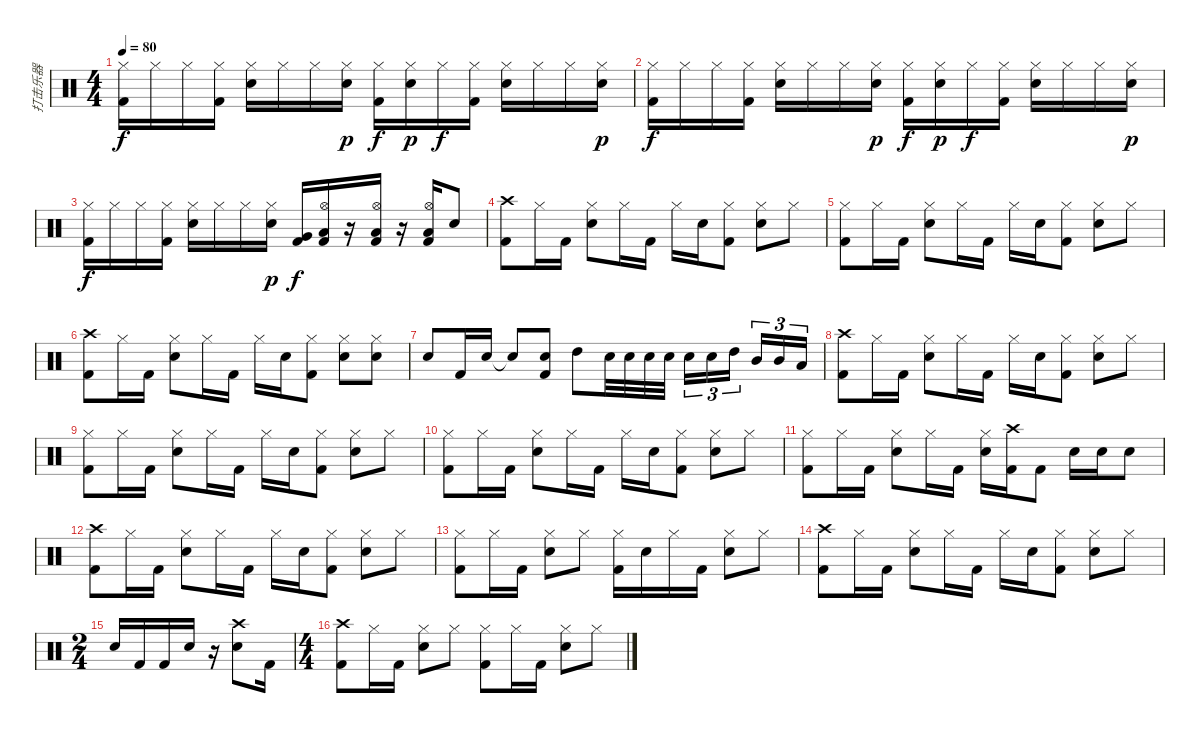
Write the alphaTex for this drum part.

\track ("打击乐器" "打击乐器") {instrument percussion}
\staff {score}
\articulation defaults
\ts (4 4)
\tempo 80
\clef neutral
\ks c
("Hi-Hat (closed)" "Kick (hit) 2").16{dy f} "Hi-Hat (closed)".16 "Hi-Hat (closed)".16 ("Hi-Hat (closed)" "Kick (hit) 2").16 ("Hi-Hat (closed)" "Snare (hit) 2").16 "Hi-Hat (closed)".16 "Hi-Hat (closed)".16 ("Hi-Hat (closed)" "Hand Clap (hit)").16{dy p} ("Hi-Hat (closed)" "Kick (hit) 2").16{dy f} ("Hi-Hat (closed)" "Hand Clap (hit)").16{dy p} "Hi-Hat (closed)".16{dy f} ("Hi-Hat (closed)" "Kick (hit) 2").16 ("Hi-Hat (closed)" "Snare (hit) 2").16 "Hi-Hat (closed)".16 "Hi-Hat (closed)".16 ("Hi-Hat (closed)" "Hand Clap (hit)").16{dy p} |
("Hi-Hat (closed)" "Kick (hit) 2").16{dy f} "Hi-Hat (closed)".16 "Hi-Hat (closed)".16 ("Hi-Hat (closed)" "Kick (hit) 2").16 ("Hi-Hat (closed)" "Snare (hit) 2").16 "Hi-Hat (closed)".16 "Hi-Hat (closed)".16 ("Hi-Hat (closed)" "Hand Clap (hit)").16{dy p} ("Hi-Hat (closed)" "Kick (hit) 2").16{dy f} ("Hi-Hat (closed)" "Hand Clap (hit)").16{dy p} "Hi-Hat (closed)".16{dy f} ("Hi-Hat (closed)" "Kick (hit) 2").16 ("Hi-Hat (closed)" "Snare (hit) 2").16 "Hi-Hat (closed)".16 "Hi-Hat (closed)".16 ("Hi-Hat (closed)" "Hand Clap (hit)").16{dy p} |
("Hi-Hat (closed)" "Kick (hit) 2").16{dy f} "Hi-Hat (closed)".16 "Hi-Hat (closed)".16 ("Hi-Hat (closed)" "Kick (hit) 2").16 ("Hi-Hat (closed)" "Snare (hit) 2").16 "Hi-Hat (closed)".16 "Hi-Hat (closed)".16 ("Hi-Hat (closed)" "Hand Clap (hit)").16{dy p} ("Very Low Tom (hit)" "Kick (hit) 2").16{dy f} ("Hi-Hat (open)" "Low Floor Tom (hit)" "Kick (hit) 2").16 r.16 ("Hi-Hat (open)" "Low Floor Tom (hit)" "Kick (hit) 2").16 r.16 ("Hi-Hat (open)" "Low Floor Tom (hit)" "Kick (hit) 2").16 "Electric Snare (hit)".8 |
("Crash high (hit)" "Kick (hit) 2").8 "Hi-Hat (closed)".16 "Kick (hit) 2".16 ("Hi-Hat (closed)" "Electric Snare (hit)").8 "Hi-Hat (closed)".16 "Kick (hit) 2".16 "Hi-Hat (closed)".16 "Electric Snare (hit)".16 ("Hi-Hat (closed)" "Kick (hit) 2").8 ("Hi-Hat (closed)" "Electric Snare (hit)").8 "Hi-Hat (closed)".8 |
("Hi-Hat (closed)" "Kick (hit) 2").8 "Hi-Hat (closed)".16 "Kick (hit) 2".16 ("Hi-Hat (closed)" "Electric Snare (hit)").8 "Hi-Hat (closed)".16 "Kick (hit) 2".16 "Hi-Hat (closed)".16 "Electric Snare (hit)".16 ("Hi-Hat (closed)" "Kick (hit) 2").8 ("Hi-Hat (closed)" "Electric Snare (hit)").8 "Hi-Hat (closed)".8 |
("Crash high (hit)" "Kick (hit) 2").8 "Hi-Hat (closed)".16 "Kick (hit) 2".16 ("Hi-Hat (closed)" "Electric Snare (hit)").8 "Hi-Hat (closed)".16 "Kick (hit) 2".16 "Hi-Hat (closed)".16 "Electric Snare (hit)".16 ("Hi-Hat (closed)" "Kick (hit) 2").8 ("Hi-Hat (closed)" "Electric Snare (hit)").8 ("Hi-Hat (closed)" "Electric Snare (hit)").8 |
"Electric Snare (hit)".8 "Kick (hit) 2".16 "Electric Snare (hit)".16 "Snare (hit)"{t}.8 ("Electric Snare (hit)" "Kick (hit) 2").8 "High Tom (hit)".8 "Electric Snare (hit)".32 "Electric Snare (hit)".32 "Electric Snare (hit)".32 "Electric Snare (hit)".32 "Electric Snare (hit)".16{tu (3 2)} "Electric Snare (hit)".16{tu (3 2)} "High Tom (hit)".16{tu (3 2)} "Mid Tom (hit)".16{tu (3 2)} "Mid Tom (hit)".16{tu (3 2)} "Low Tom (hit)".16{tu (3 2)} |
("Crash high (hit)" "Kick (hit) 2").8 "Hi-Hat (closed)".16 "Kick (hit) 2".16 ("Hi-Hat (closed)" "Electric Snare (hit)").8 "Hi-Hat (closed)".16 "Kick (hit) 2".16 "Hi-Hat (closed)".16 "Electric Snare (hit)".16 ("Hi-Hat (closed)" "Kick (hit) 2").8 ("Hi-Hat (closed)" "Electric Snare (hit)").8 "Hi-Hat (closed)".8 |
("Hi-Hat (closed)" "Kick (hit) 2").8 "Hi-Hat (closed)".16 "Kick (hit) 2".16 ("Hi-Hat (closed)" "Electric Snare (hit)").8 "Hi-Hat (closed)".16 "Kick (hit) 2".16 "Hi-Hat (closed)".16 "Electric Snare (hit)".16 ("Hi-Hat (closed)" "Kick (hit) 2").8 ("Hi-Hat (closed)" "Electric Snare (hit)").8 "Hi-Hat (closed)".8 |
("Hi-Hat (closed)" "Kick (hit) 2").8 "Hi-Hat (closed)".16 "Kick (hit) 2".16 ("Hi-Hat (closed)" "Electric Snare (hit)").8 "Hi-Hat (closed)".16 "Kick (hit) 2".16 "Hi-Hat (closed)".16 "Electric Snare (hit)".16 ("Hi-Hat (closed)" "Kick (hit) 2").8 ("Hi-Hat (closed)" "Electric Snare (hit)").8 "Hi-Hat (closed)".8 |
("Hi-Hat (closed)" "Kick (hit) 2").8 "Hi-Hat (closed)".16 "Kick (hit) 2".16 ("Hi-Hat (closed)" "Electric Snare (hit)").8 "Hi-Hat (closed)".16 "Kick (hit) 2".16 ("Hi-Hat (closed)" "Electric Snare (hit)").16 ("Crash high (hit)" "Kick (hit) 2").16 "Kick (hit) 2".8 "Electric Snare (hit)".16 "Electric Snare (hit)".16 "Electric Snare (hit)".8 |
("Crash high (hit)" "Kick (hit) 2").8 "Hi-Hat (closed)".16 "Kick (hit) 2".16 ("Hi-Hat (closed)" "Electric Snare (hit)").8 "Hi-Hat (closed)".16 "Kick (hit) 2".16 "Hi-Hat (closed)".16 "Electric Snare (hit)".16 ("Hi-Hat (closed)" "Kick (hit) 2").8 ("Hi-Hat (closed)" "Electric Snare (hit)").8 "Hi-Hat (closed)".8 |
("Hi-Hat (closed)" "Kick (hit) 2").8 "Hi-Hat (closed)".16 "Kick (hit) 2".16 ("Hi-Hat (closed)" "Electric Snare (hit)").8 "Hi-Hat (closed)".8 ("Hi-Hat (closed)" "Kick (hit) 2").16 "Electric Snare (hit)".16 "Hi-Hat (closed)".16 "Kick (hit) 2".16 ("Hi-Hat (closed)" "Electric Snare (hit)").8 "Hi-Hat (closed)".8 |
("Crash high (hit)" "Kick (hit) 2").8 "Hi-Hat (closed)".16 "Kick (hit) 2".16 ("Hi-Hat (closed)" "Electric Snare (hit)").8 "Hi-Hat (closed)".16 "Kick (hit) 2".16 "Hi-Hat (closed)".16 "Electric Snare (hit)".16 ("Hi-Hat (closed)" "Kick (hit) 2").8 ("Hi-Hat (closed)" "Electric Snare (hit)").8 "Hi-Hat (closed)".8 |
\ts (2 4)
"Electric Snare (hit)".16 "Kick (hit) 2".16 "Kick (hit) 2".16 "Electric Snare (hit)".16 r.16 ("Crash high (hit)" "Electric Snare (hit)").8 "Kick (hit) 2".16 |
\ts (4 4)
("Crash high (hit)" "Kick (hit) 2").8 "Hi-Hat (closed)".16 "Kick (hit) 2".16 ("Hi-Hat (closed)" "Electric Snare (hit)").8 "Hi-Hat (closed)".8 ("Hi-Hat (closed)" "Kick (hit) 2").8 "Hi-Hat (closed)".16 "Kick (hit) 2".16 ("Hi-Hat (closed)" "Electric Snare (hit)").8 "Hi-Hat (closed)".8
